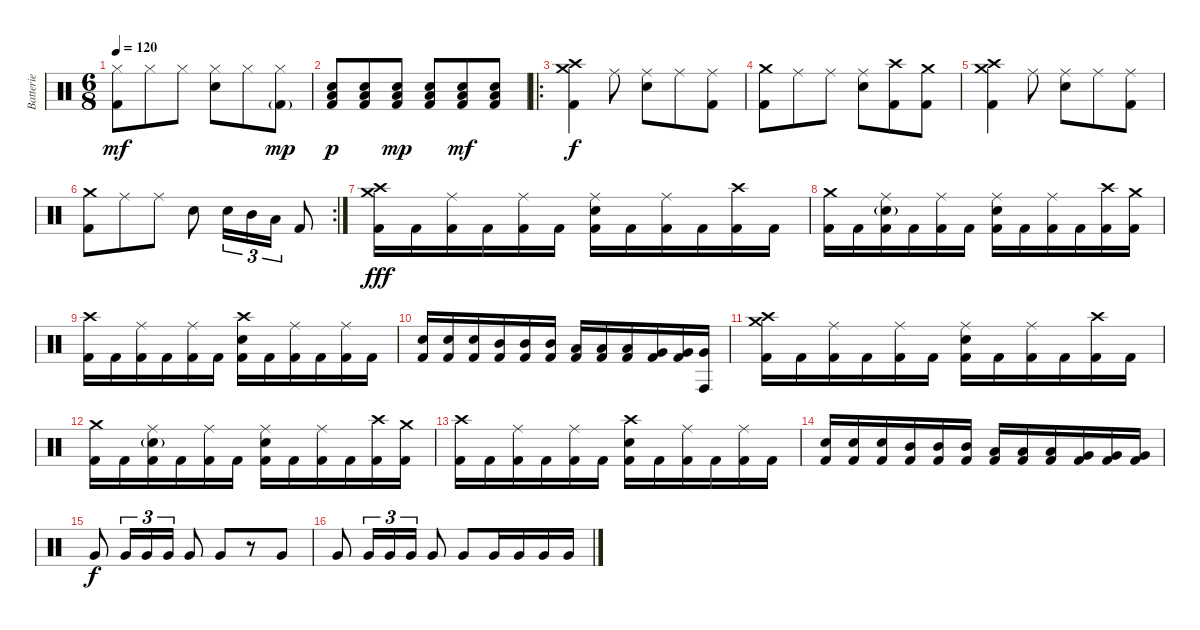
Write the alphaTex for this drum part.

\track ("Batterie" "Batterie") {instrument percussion}
\staff {score}
\articulation defaults
\ts (6 8)
\tempo 120
\clef neutral
\ks c
("Hi-Hat (closed)" "Kick (hit) 2").8{dy mf} "Hi-Hat (closed)".8 "Hi-Hat (closed)".8 ("Hi-Hat (closed)" "Electric Snare (hit)").8 "Hi-Hat (closed)".8 ("Hi-Hat (closed)" "Kick (hit) 2"{g}).8{dy mp} |
("Electric Snare (hit)" "Low Tom (hit)" "Kick (hit) 2").8{dy p} ("Electric Snare (hit)" "Low Tom (hit)" "Kick (hit) 2").8 ("Electric Snare (hit)" "Low Tom (hit)" "Kick (hit) 2").8{dy mp} ("Electric Snare (hit)" "Low Tom (hit)" "Kick (hit) 2").8 ("Electric Snare (hit)" "Low Tom (hit)" "Kick (hit) 2").8{dy mf} ("Electric Snare (hit)" "Low Tom (hit)" "Kick (hit) 2").8 |
\ro
("Crash high (hit)" "Crash medium (hit)" "Kick (hit) 2").4{dy f} "Ride (middle)".8 ("Ride (middle)" "Electric Snare (hit)").8 "Ride (middle)".8 ("Ride (middle)" "Kick (hit) 2").8 |
("Crash medium (hit)" "Kick (hit) 2").8 "Ride (middle)".8 "Ride (middle)".8 ("Ride (middle)" "Electric Snare (hit)").8 ("Crash high (hit)" "Kick (hit) 2").8 ("Crash medium (hit)" "Kick (hit) 2").8 |
("Crash high (hit)" "Crash medium (hit)" "Kick (hit) 2").4 "Ride (middle)".8 ("Ride (middle)" "Electric Snare (hit)").8 "Ride (middle)".8 ("Ride (middle)" "Kick (hit) 2").8 |
\rc 2
("Crash medium (hit)" "Kick (hit) 2").8 "Ride (middle)".8 "Ride (middle)".8 "Electric Snare (hit)".8 "Electric Snare (hit)".16{tu (3 2)} "Mid Tom (hit)".16{tu (3 2)} "Low Tom (hit)".16{tu (3 2)} "Kick (hit) 2".8 |
("Crash medium (hit)" "Crash high (hit)" "Kick (hit) 2").16{dy fff} "Kick (hit) 2".16 ("Ride (middle)" "Kick (hit) 2").16 "Kick (hit) 2".16 ("Ride (middle)" "Kick (hit) 2").16 "Kick (hit) 2".16 ("Ride (middle)" "Electric Snare (hit)" "Kick (hit) 2").16 "Kick (hit) 2".16 ("Ride (middle)" "Kick (hit) 2").16 "Kick (hit) 2".16 ("Crash high (hit)" "Kick (hit) 2").16 "Kick (hit) 2".16 |
("Crash medium (hit)" "Kick (hit) 2").16 "Kick (hit) 2".16 ("Ride (middle)" "Electric Snare (hit)"{g} "Kick (hit) 2").16 "Kick (hit) 2".16 ("Ride (middle)" "Kick (hit) 2").16 "Kick (hit) 2".16 ("Ride (middle)" "Electric Snare (hit)" "Kick (hit) 2").16 "Kick (hit) 2".16 ("Ride (middle)" "Kick (hit) 2").16 "Kick (hit) 2".16 ("Crash high (hit)" "Kick (hit) 2").16 ("Crash medium (hit)" "Kick (hit) 2").16 |
("Crash high (hit)" "Kick (hit) 2").16 "Kick (hit) 2".16 ("Ride (middle)" "Kick (hit) 2").16 "Kick (hit) 2".16 ("Ride (middle)" "Kick (hit) 2").16 "Kick (hit) 2".16 ("Crash high (hit)" "Electric Snare (hit)" "Kick (hit) 2").16 "Kick (hit) 2".16 ("Ride (middle)" "Kick (hit) 2").16 "Kick (hit) 2".16 ("Ride (middle)" "Kick (hit) 2").16 "Kick (hit) 2".16 |
("Electric Snare (hit)" "Kick (hit) 2").16 ("Electric Snare (hit)" "Kick (hit) 2").16 ("Electric Snare (hit)" "Kick (hit) 2").16 ("Mid Tom (hit)" "Kick (hit) 2").16 ("Mid Tom (hit)" "Kick (hit) 2").16 ("Mid Tom (hit)" "Kick (hit) 2").16 ("Low Tom (hit)" "Kick (hit) 2").16 ("Low Tom (hit)" "Kick (hit) 2").16 ("Low Tom (hit)" "Kick (hit) 2").16 ("Very Low Tom (hit)" "Kick (hit) 2").16 ("Very Low Tom (hit)" "Kick (hit) 2").16 ("Very Low Tom (hit)" "Conga high (hit)").16 |
("Crash medium (hit)" "Crash high (hit)" "Kick (hit) 2").16 "Kick (hit) 2".16 ("Ride (middle)" "Kick (hit) 2").16 "Kick (hit) 2".16 ("Ride (middle)" "Kick (hit) 2").16 "Kick (hit) 2".16 ("Ride (middle)" "Electric Snare (hit)" "Kick (hit) 2").16 "Kick (hit) 2".16 ("Ride (middle)" "Kick (hit) 2").16 "Kick (hit) 2".16 ("Crash high (hit)" "Kick (hit) 2").16 "Kick (hit) 2".16 |
("Crash medium (hit)" "Kick (hit) 2").16 "Kick (hit) 2".16 ("Ride (middle)" "Electric Snare (hit)"{g} "Kick (hit) 2").16 "Kick (hit) 2".16 ("Ride (middle)" "Kick (hit) 2").16 "Kick (hit) 2".16 ("Ride (middle)" "Electric Snare (hit)" "Kick (hit) 2").16 "Kick (hit) 2".16 ("Ride (middle)" "Kick (hit) 2").16 "Kick (hit) 2".16 ("Crash high (hit)" "Kick (hit) 2").16 ("Crash medium (hit)" "Kick (hit) 2").16 |
("Crash high (hit)" "Kick (hit) 2").16 "Kick (hit) 2".16 ("Ride (middle)" "Kick (hit) 2").16 "Kick (hit) 2".16 ("Ride (middle)" "Kick (hit) 2").16 "Kick (hit) 2".16 ("Crash high (hit)" "Electric Snare (hit)" "Kick (hit) 2").16 "Kick (hit) 2".16 ("Ride (middle)" "Kick (hit) 2").16 "Kick (hit) 2".16 ("Ride (middle)" "Kick (hit) 2").16 "Kick (hit) 2".16 |
("Electric Snare (hit)" "Kick (hit) 2").16 ("Electric Snare (hit)" "Kick (hit) 2").16 ("Electric Snare (hit)" "Kick (hit) 2").16 ("Mid Tom (hit)" "Kick (hit) 2").16 ("Mid Tom (hit)" "Kick (hit) 2").16 ("Mid Tom (hit)" "Kick (hit) 2").16 ("Low Tom (hit)" "Kick (hit) 2").16 ("Low Tom (hit)" "Kick (hit) 2").16 ("Low Tom (hit)" "Kick (hit) 2").16 ("Very Low Tom (hit)" "Kick (hit) 2").16 ("Very Low Tom (hit)" "Kick (hit) 2").16 ("Very Low Tom (hit)" "Kick (hit) 2").16 |
"Very Low Tom (hit)".8{dy f} "Very Low Tom (hit)".16{tu (3 2)} "Very Low Tom (hit)".16{tu (3 2)} "Very Low Tom (hit)".16{tu (3 2)} "Very Low Tom (hit)".8 "Very Low Tom (hit)".8 r.8 "Very Low Tom (hit)".8 |
"Very Low Tom (hit)".8 "Very Low Tom (hit)".16{tu (3 2)} "Very Low Tom (hit)".16{tu (3 2)} "Very Low Tom (hit)".16{tu (3 2)} "Very Low Tom (hit)".8 "Very Low Tom (hit)".8 "Very Low Tom (hit)".16 "Very Low Tom (hit)".16 "Very Low Tom (hit)".16 "Very Low Tom (hit)".16
